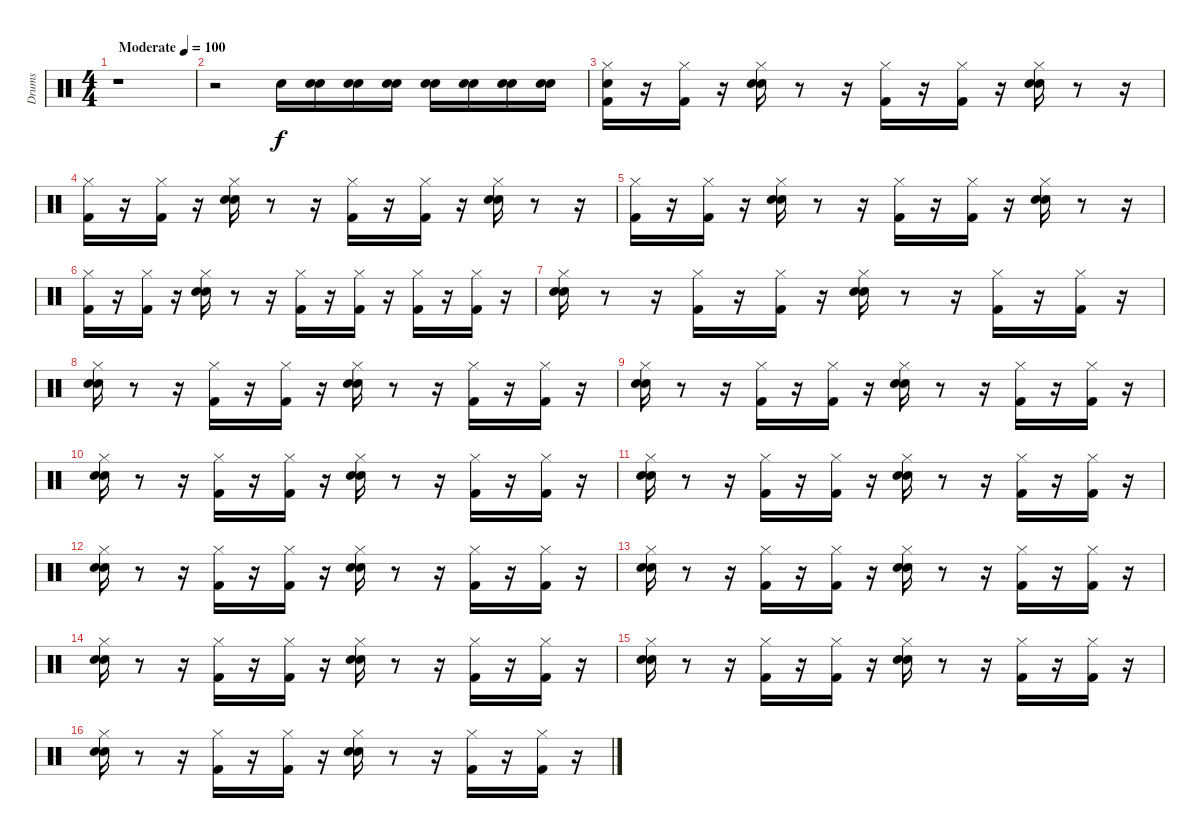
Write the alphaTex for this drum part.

\track ("Drums" "Drums") {instrument percussion}
\staff {score}
\articulation defaults
\ts (4 4)
\tempo (100 "Moderate")
\clef neutral
\ks c
r.1{dy f} |
r.2 "Snare (hit) 2".16 ("Snare (hit)" "Snare (hit) 2").16 ("Snare (hit)" "Snare (hit) 2").16 ("Snare (hit)" "Snare (hit) 2").16 ("Snare (hit)" "Snare (hit) 2").16 ("Snare (hit)" "Snare (hit) 2").16 ("Snare (hit)" "Snare (hit) 2").16 ("Snare (hit)" "Snare (hit) 2").16 |
("Snare (hit)" "Kick (hit) 2" "Hi-Hat (closed)").16 r.16 ("Kick (hit) 2" "Hi-Hat (closed)").16 r.16 ("Hand Clap (hit)" "Hi-Hat (closed)" "Snare (hit) 2").16 r.8 r.16 ("Hi-Hat (closed)" "Kick (hit) 2").16 r.16 ("Hi-Hat (closed)" "Kick (hit) 2").16 r.16 ("Snare (hit) 2" "Hand Clap (hit)" "Hi-Hat (closed)").16 r.8 r.16 |
("Kick (hit) 2" "Hi-Hat (closed)").16 r.16 ("Hi-Hat (closed)" "Kick (hit) 2").16 r.16 ("Hand Clap (hit)" "Hi-Hat (closed)" "Snare (hit) 2").16 r.8 r.16 ("Kick (hit) 2" "Hi-Hat (closed)").16 r.16 ("Hi-Hat (closed)" "Kick (hit) 2").16 r.16 ("Snare (hit) 2" "Hand Clap (hit)" "Hi-Hat (closed)").16 r.8 r.16 |
("Hi-Hat (closed)" "Kick (hit) 2").16 r.16 ("Hi-Hat (closed)" "Kick (hit) 2").16 r.16 ("Snare (hit) 2" "Hand Clap (hit)" "Hi-Hat (closed)").16 r.8 r.16 ("Hi-Hat (closed)" "Kick (hit) 2").16 r.16 ("Kick (hit) 2" "Hi-Hat (closed)").16 r.16 ("Snare (hit) 2" "Hand Clap (hit)" "Hi-Hat (closed)").16 r.8 r.16 |
("Kick (hit) 2" "Hi-Hat (closed)").16 r.16 ("Hi-Hat (closed)" "Kick (hit) 2").16 r.16 ("Snare (hit) 2" "Hi-Hat (closed)" "Hand Clap (hit)").16 r.8 r.16 ("Kick (hit) 2" "Hi-Hat (closed)").16 r.16 ("Hi-Hat (closed)" "Kick (hit) 2").16 r.16 ("Hi-Hat (closed)" "Kick (hit) 2").16 r.16 ("Hi-Hat (closed)" "Kick (hit) 2").16 r.16 |
("Hi-Hat (closed)" "Hand Clap (hit)" "Snare (hit) 2").16 r.8 r.16 ("Hi-Hat (closed)" "Kick (hit) 2").16 r.16 ("Hi-Hat (closed)" "Kick (hit) 2").16 r.16 ("Hand Clap (hit)" "Snare (hit) 2" "Hi-Hat (closed)").16 r.8 r.16 ("Kick (hit) 2" "Hi-Hat (closed)").16 r.16 ("Kick (hit) 2" "Hi-Hat (closed)").16 r.16 |
("Hand Clap (hit)" "Hi-Hat (closed)" "Snare (hit) 2").16 r.8 r.16 ("Kick (hit) 2" "Hi-Hat (closed)").16 r.16 ("Hi-Hat (closed)" "Kick (hit) 2").16 r.16 ("Snare (hit) 2" "Hi-Hat (closed)" "Hand Clap (hit)").16 r.8 r.16 ("Kick (hit) 2" "Hi-Hat (closed)").16 r.16 ("Kick (hit) 2" "Hi-Hat (closed)").16 r.16 |
("Hi-Hat (closed)" "Snare (hit) 2" "Hand Clap (hit)").16 r.8 r.16 ("Kick (hit) 2" "Hi-Hat (closed)").16 r.16 ("Kick (hit) 2" "Hi-Hat (closed)").16 r.16 ("Hi-Hat (closed)" "Hand Clap (hit)" "Snare (hit) 2").16 r.8 r.16 ("Hi-Hat (closed)" "Kick (hit) 2").16 r.16 ("Hi-Hat (closed)" "Kick (hit) 2").16 r.16 |
("Hand Clap (hit)" "Hi-Hat (closed)" "Snare (hit) 2").16 r.8 r.16 ("Hi-Hat (closed)" "Kick (hit) 2").16 r.16 ("Kick (hit) 2" "Hi-Hat (closed)").16 r.16 ("Hi-Hat (closed)" "Snare (hit) 2" "Hand Clap (hit)").16 r.8 r.16 ("Kick (hit) 2" "Hi-Hat (closed)").16 r.16 ("Kick (hit) 2" "Hi-Hat (closed)").16 r.16 |
("Hi-Hat (closed)" "Snare (hit) 2" "Hand Clap (hit)").16 r.8 r.16 ("Kick (hit) 2" "Hi-Hat (closed)").16 r.16 ("Hi-Hat (closed)" "Kick (hit) 2").16 r.16 ("Hand Clap (hit)" "Hi-Hat (closed)" "Snare (hit) 2").16 r.8 r.16 ("Kick (hit) 2" "Hi-Hat (closed)").16 r.16 ("Kick (hit) 2" "Hi-Hat (closed)").16 r.16 |
("Hi-Hat (closed)" "Hand Clap (hit)" "Snare (hit) 2").16 r.8 r.16 ("Hi-Hat (closed)" "Kick (hit) 2").16 r.16 ("Kick (hit) 2" "Hi-Hat (closed)").16 r.16 ("Snare (hit) 2" "Hi-Hat (closed)" "Hand Clap (hit)").16 r.8 r.16 ("Hi-Hat (closed)" "Kick (hit) 2").16 r.16 ("Hi-Hat (closed)" "Kick (hit) 2").16 r.16 |
("Hand Clap (hit)" "Snare (hit) 2" "Hi-Hat (closed)").16 r.8 r.16 ("Kick (hit) 2" "Hi-Hat (closed)").16 r.16 ("Hi-Hat (closed)" "Kick (hit) 2").16 r.16 ("Hand Clap (hit)" "Snare (hit) 2" "Hi-Hat (closed)").16 r.8 r.16 ("Kick (hit) 2" "Hi-Hat (closed)").16 r.16 ("Kick (hit) 2" "Hi-Hat (closed)").16 r.16 |
("Snare (hit) 2" "Hi-Hat (closed)" "Hand Clap (hit)").16 r.8 r.16 ("Hi-Hat (closed)" "Kick (hit) 2").16 r.16 ("Hi-Hat (closed)" "Kick (hit) 2").16 r.16 ("Hi-Hat (closed)" "Hand Clap (hit)" "Snare (hit) 2").16 r.8 r.16 ("Hi-Hat (closed)" "Kick (hit) 2").16 r.16 ("Kick (hit) 2" "Hi-Hat (closed)").16 r.16 |
("Hand Clap (hit)" "Snare (hit) 2" "Hi-Hat (closed)").16 r.8 r.16 ("Hi-Hat (closed)" "Kick (hit) 2").16 r.16 ("Kick (hit) 2" "Hi-Hat (closed)").16 r.16 ("Hi-Hat (closed)" "Snare (hit) 2" "Hand Clap (hit)").16 r.8 r.16 ("Kick (hit) 2" "Hi-Hat (closed)").16 r.16 ("Hi-Hat (closed)" "Kick (hit) 2").16 r.16 |
("Snare (hit) 2" "Hand Clap (hit)" "Hi-Hat (closed)").16 r.8 r.16 ("Kick (hit) 2" "Hi-Hat (closed)").16 r.16 ("Hi-Hat (closed)" "Kick (hit) 2").16 r.16 ("Hi-Hat (closed)" "Hand Clap (hit)" "Snare (hit) 2").16 r.8 r.16 ("Kick (hit) 2" "Hi-Hat (closed)").16 r.16 ("Hi-Hat (closed)" "Kick (hit) 2").16 r.16
